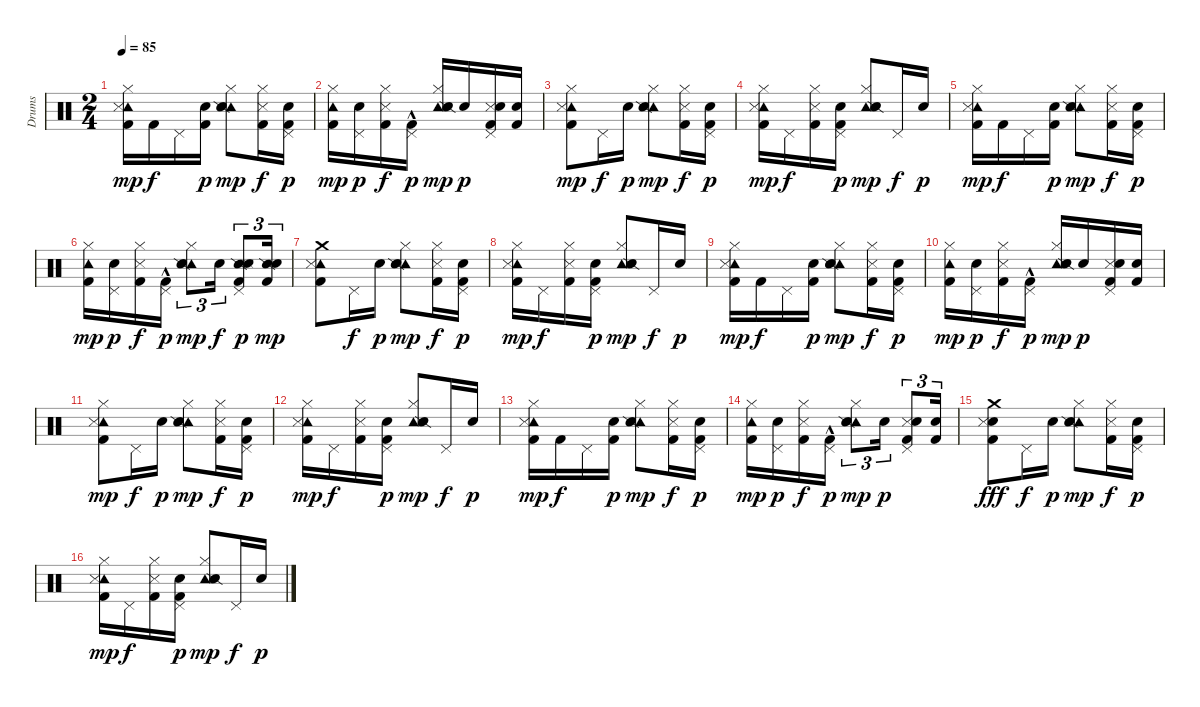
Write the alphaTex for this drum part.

\track ("Drums" "Drums") {instrument percussion}
\staff {score}
\articulation defaults
\ts (2 4)
\tempo 85
\clef neutral
\ks c
("Tambourine (hit)" "Metronome (hit)" "Kick (hit) 2" "Hi-Hat (closed)").16{dy mp} "Kick (hit) 2".16{dy f} "Pedal Hi-Hat (hit)".16 ("Electric Snare (hit)" "Kick (hit) 2").16{dy p} ("Tambourine (hit)" "Snare (hit) 2" "Snare (side stick) 2" "Hi-Hat (closed)").8{dy mp} ("Metronome (hit)" "Kick (hit) 2" "Hi-Hat (closed)").16{dy f} ("Kick (hit) 2" "Electric Snare (hit)" "Pedal Hi-Hat (hit)").16{dy p} |
("Kick (hit) 2" "Tambourine (hit)" "Hi-Hat (closed)").16{dy mp} ("Snare (hit) 2" "Pedal Hi-Hat (hit)").16{dy p} ("Metronome (hit)" "Kick (hit) 2" "Hi-Hat (closed)").16{dy f} ("Kick (hit) 2"{hac} "Pedal Hi-Hat (hit)").16{dy p} ("Tambourine (hit)" "Snare (hit) 2" "Snare (side stick) 2" "Hi-Hat (closed)").16{dy mp} "Electric Snare (hit)".16{dy p} ("Metronome (hit)" "Kick (hit) 2" "Electric Snare (hit)" "Pedal Hi-Hat (hit)").16 ("Kick (hit) 2" "Electric Snare (hit)").16 |
("Tambourine (hit)" "Metronome (hit)" "Kick (hit) 2" "Hi-Hat (closed)").8{dy mp} "Pedal Hi-Hat (hit)".16{dy f} "Electric Snare (hit)".16{dy p} ("Tambourine (hit)" "Snare (hit) 2" "Hi-Hat (closed)" "Snare (side stick) 2").8{dy mp} ("Hi-Hat (closed)" "Metronome (hit)" "Kick (hit) 2").16{dy f} ("Electric Snare (hit)" "Pedal Hi-Hat (hit)" "Kick (hit) 2").16{dy p} |
("Tambourine (hit)" "Metronome (hit)" "Kick (hit) 2" "Hi-Hat (closed)").16{dy mp} "Pedal Hi-Hat (hit)".16{dy f} ("Hi-Hat (closed)" "Metronome (hit)" "Kick (hit) 2").16 ("Electric Snare (hit)" "Pedal Hi-Hat (hit)" "Kick (hit) 2").16{dy p} ("Tambourine (hit)" "Snare (side stick) 2" "Snare (hit) 2" "Hi-Hat (closed)").8{dy mp} "Pedal Hi-Hat (hit)".16{dy f} "Electric Snare (hit)".16{dy p} |
("Tambourine (hit)" "Metronome (hit)" "Kick (hit) 2" "Hi-Hat (closed)").16{dy mp} "Kick (hit) 2".16{dy f} "Pedal Hi-Hat (hit)".16 ("Electric Snare (hit)" "Kick (hit) 2").16{dy p} ("Tambourine (hit)" "Snare (hit) 2" "Snare (side stick) 2" "Hi-Hat (closed)").8{dy mp} ("Metronome (hit)" "Kick (hit) 2" "Hi-Hat (closed)").16{dy f} ("Kick (hit) 2" "Electric Snare (hit)" "Pedal Hi-Hat (hit)").16{dy p} |
("Kick (hit) 2" "Tambourine (hit)" "Hi-Hat (closed)").16{dy mp} ("Snare (hit) 2" "Pedal Hi-Hat (hit)").16{dy p} ("Metronome (hit)" "Kick (hit) 2" "Hi-Hat (closed)").16{dy f} ("Kick (hit) 2"{hac} "Pedal Hi-Hat (hit)").16{dy p} ("Tambourine (hit)" "Snare (hit) 2" "Snare (side stick) 2" "Hi-Hat (closed)").8{tu (3 2) dy mp} "Electric Snare (hit)".16{tu (3 2) dy f} ("Snare (side stick) 2" "Metronome (hit)" "Kick (hit) 2" "Electric Snare (hit)" "Pedal Hi-Hat (hit)").8{tu (3 2) dy p} ("Snare (side stick) 2" "Kick (hit) 2" "Electric Snare (hit)").16{tu (3 2) dy mp} |
("Crash medium (hit)" "Tambourine (hit)" "Metronome (hit)" "Kick (hit) 2").8 "Pedal Hi-Hat (hit)".16{dy f} "Electric Snare (hit)".16{dy p} ("Tambourine (hit)" "Snare (hit) 2" "Hi-Hat (closed)" "Snare (side stick) 2").8{dy mp} ("Hi-Hat (closed)" "Metronome (hit)" "Kick (hit) 2").16{dy f} ("Electric Snare (hit)" "Pedal Hi-Hat (hit)" "Kick (hit) 2").16{dy p} |
("Tambourine (hit)" "Metronome (hit)" "Kick (hit) 2" "Hi-Hat (closed)").16{dy mp} "Pedal Hi-Hat (hit)".16{dy f} ("Hi-Hat (closed)" "Metronome (hit)" "Kick (hit) 2").16 ("Electric Snare (hit)" "Pedal Hi-Hat (hit)" "Kick (hit) 2").16{dy p} ("Tambourine (hit)" "Snare (side stick) 2" "Snare (hit) 2" "Hi-Hat (closed)").8{dy mp} "Pedal Hi-Hat (hit)".16{dy f} "Electric Snare (hit)".16{dy p} |
("Tambourine (hit)" "Metronome (hit)" "Kick (hit) 2" "Hi-Hat (closed)").16{dy mp} "Kick (hit) 2".16{dy f} "Pedal Hi-Hat (hit)".16 ("Electric Snare (hit)" "Kick (hit) 2").16{dy p} ("Tambourine (hit)" "Snare (hit) 2" "Snare (side stick) 2" "Hi-Hat (closed)").8{dy mp} ("Metronome (hit)" "Kick (hit) 2" "Hi-Hat (closed)").16{dy f} ("Kick (hit) 2" "Electric Snare (hit)" "Pedal Hi-Hat (hit)").16{dy p} |
("Kick (hit) 2" "Tambourine (hit)" "Hi-Hat (closed)").16{dy mp} ("Snare (hit) 2" "Pedal Hi-Hat (hit)").16{dy p} ("Metronome (hit)" "Kick (hit) 2" "Hi-Hat (closed)").16{dy f} ("Kick (hit) 2"{hac} "Pedal Hi-Hat (hit)").16{dy p} ("Tambourine (hit)" "Snare (hit) 2" "Snare (side stick) 2" "Hi-Hat (closed)").16{dy mp} "Electric Snare (hit)".16{dy p} ("Metronome (hit)" "Kick (hit) 2" "Electric Snare (hit)" "Pedal Hi-Hat (hit)").16 ("Kick (hit) 2" "Electric Snare (hit)").16 |
("Tambourine (hit)" "Metronome (hit)" "Kick (hit) 2" "Hi-Hat (closed)").8{dy mp} "Pedal Hi-Hat (hit)".16{dy f} "Electric Snare (hit)".16{dy p} ("Tambourine (hit)" "Snare (hit) 2" "Hi-Hat (closed)" "Snare (side stick) 2").8{dy mp} ("Hi-Hat (closed)" "Metronome (hit)" "Kick (hit) 2").16{dy f} ("Electric Snare (hit)" "Pedal Hi-Hat (hit)" "Kick (hit) 2").16{dy p} |
("Tambourine (hit)" "Metronome (hit)" "Kick (hit) 2" "Hi-Hat (closed)").16{dy mp} "Pedal Hi-Hat (hit)".16{dy f} ("Hi-Hat (closed)" "Metronome (hit)" "Kick (hit) 2").16 ("Electric Snare (hit)" "Pedal Hi-Hat (hit)" "Kick (hit) 2").16{dy p} ("Tambourine (hit)" "Snare (side stick) 2" "Snare (hit) 2" "Hi-Hat (closed)").8{dy mp} "Pedal Hi-Hat (hit)".16{dy f} "Electric Snare (hit)".16{dy p} |
("Tambourine (hit)" "Metronome (hit)" "Kick (hit) 2" "Hi-Hat (closed)").16{dy mp} "Kick (hit) 2".16{dy f} "Pedal Hi-Hat (hit)".16 ("Electric Snare (hit)" "Kick (hit) 2").16{dy p} ("Tambourine (hit)" "Snare (hit) 2" "Snare (side stick) 2" "Hi-Hat (closed)").8{dy mp} ("Metronome (hit)" "Kick (hit) 2" "Hi-Hat (closed)").16{dy f} ("Kick (hit) 2" "Electric Snare (hit)" "Pedal Hi-Hat (hit)").16{dy p} |
("Kick (hit) 2" "Tambourine (hit)" "Hi-Hat (closed)").16{dy mp} ("Snare (hit) 2" "Pedal Hi-Hat (hit)").16{dy p} ("Metronome (hit)" "Kick (hit) 2" "Hi-Hat (closed)").16{dy f} ("Kick (hit) 2"{hac} "Pedal Hi-Hat (hit)").16{dy p} ("Tambourine (hit)" "Snare (hit) 2" "Snare (side stick) 2" "Hi-Hat (closed)").8{tu (3 2) dy mp} "Electric Snare (hit)".16{tu (3 2) dy p} ("Metronome (hit)" "Kick (hit) 2" "Electric Snare (hit)" "Pedal Hi-Hat (hit)").8{tu (3 2)} ("Kick (hit) 2" "Electric Snare (hit)").16{tu (3 2)} |
("Snare (hit)" "Crash medium (hit)" "Metronome (hit)" "Kick (hit) 2").8{dy fff} "Pedal Hi-Hat (hit)".16{dy f} "Electric Snare (hit)".16{dy p} ("Tambourine (hit)" "Snare (hit) 2" "Hi-Hat (closed)" "Snare (side stick) 2").8{dy mp} ("Metronome (hit)" "Kick (hit) 2" "Hi-Hat (closed)").16{dy f} ("Kick (hit) 2" "Electric Snare (hit)" "Pedal Hi-Hat (hit)").16{dy p} |
("Tambourine (hit)" "Metronome (hit)" "Kick (hit) 2" "Hi-Hat (closed)").16{dy mp} "Pedal Hi-Hat (hit)".16{dy f} ("Metronome (hit)" "Kick (hit) 2" "Hi-Hat (closed)").16 ("Kick (hit) 2" "Electric Snare (hit)" "Pedal Hi-Hat (hit)").16{dy p} ("Tambourine (hit)" "Snare (side stick) 2" "Snare (hit) 2" "Hi-Hat (closed)").8{dy mp} "Pedal Hi-Hat (hit)".16{dy f} "Electric Snare (hit)".16{dy p}
